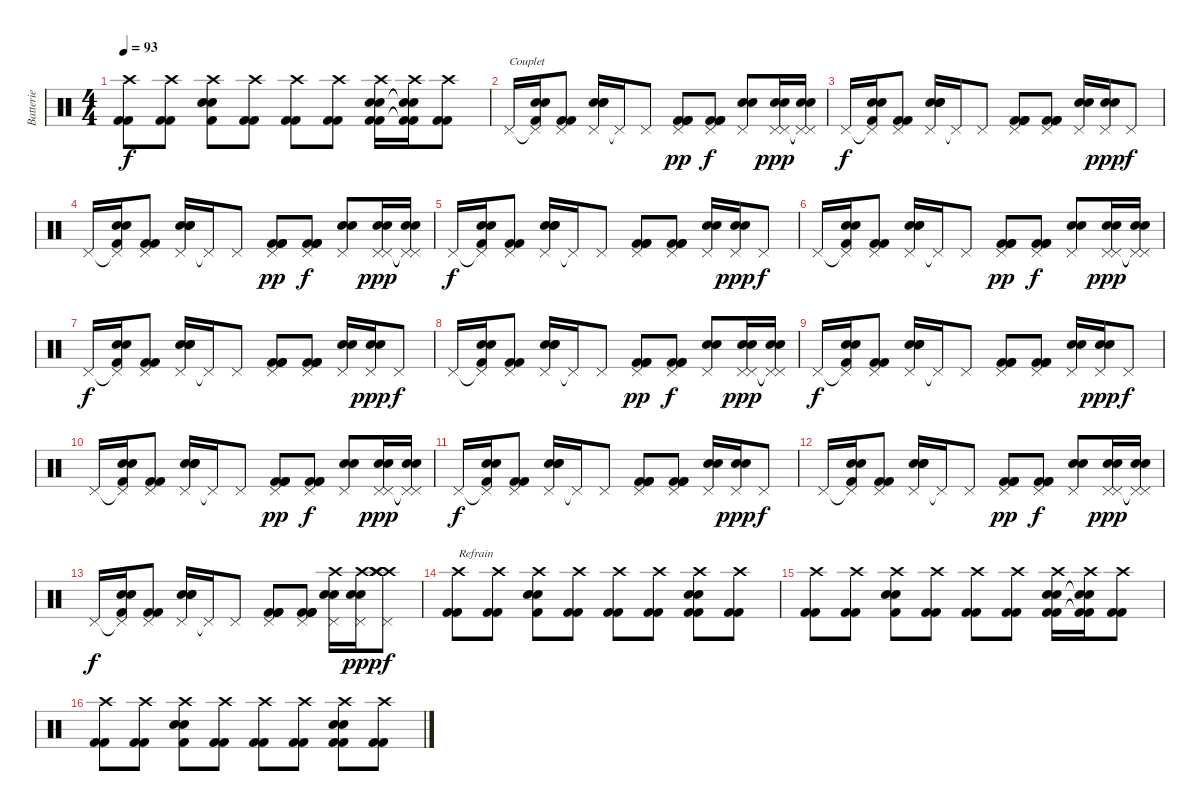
\track ("Batterie" "Batterie") {instrument percussion}
\staff {score}
\articulation defaults
\ts (4 4)
\tempo 93
\clef neutral
\ks c
("Crash high (hit)" "Kick (hit) 2" "Kick (hit) 2").8{dy f} ("Crash high (hit)" "Kick (hit) 2" "Kick (hit) 2").8 ("Crash high (hit)" "Snare (hit) 2" "Snare (hit) 2" "Kick (hit) 2").8 ("Crash high (hit)" "Kick (hit) 2" "Kick (hit) 2").8 ("Crash high (hit)" "Kick (hit) 2" "Kick (hit) 2").8 ("Crash high (hit)" "Kick (hit) 2" "Kick (hit) 2").8 ("Crash high (hit)" "Snare (hit) 2" "Snare (hit) 2" "Kick (hit) 2" "Kick (hit) 2").16 ("Crash high (hit)" "Snare (hit) 2"{t} "Snare (hit) 2"{t} "Kick (hit) 2"{t} "Kick (hit) 2"{t}).16 ("Crash high (hit)" "Kick (hit) 2" "Kick (hit) 2").8 |
"Pedal Hi-Hat (hit)".16{txt "Couplet"} ("Pedal Hi-Hat (hit)"{t} "Snare (hit) 2" "Snare (hit) 2" "Kick (hit) 2").16 ("Pedal Hi-Hat (hit)" "Kick (hit) 2" "Kick (hit) 2").8 ("Pedal Hi-Hat (hit)" "Snare (hit) 2" "Snare (hit) 2" "Snare (hit) 2").16 "Pedal Hi-Hat (hit)"{t}.16 "Pedal Hi-Hat (hit)".8 ("Pedal Hi-Hat (hit)" "Kick (hit) 2" "Kick (hit) 2" "Kick (hit) 2").8{dy pp} ("Pedal Hi-Hat (hit)" "Kick (hit) 2" "Kick (hit) 2" "Kick (hit) 2").8{dy f} ("Pedal Hi-Hat (hit)" "Snare (hit) 2" "Snare (hit) 2").8 ("Pedal Hi-Hat (hit)" "Pedal Hi-Hat (hit)" "Snare (hit) 2" "Snare (hit) 2").16{dy ppp} ("Pedal Hi-Hat (hit)"{t} "Pedal Hi-Hat (hit)"{t} "Snare (hit) 2" "Snare (hit) 2").16 |
"Pedal Hi-Hat (hit)".16{dy f} ("Pedal Hi-Hat (hit)"{t} "Snare (hit) 2" "Snare (hit) 2" "Kick (hit) 2").16 ("Pedal Hi-Hat (hit)" "Kick (hit) 2" "Kick (hit) 2").8 ("Pedal Hi-Hat (hit)" "Snare (hit) 2" "Snare (hit) 2" "Snare (hit) 2").16 "Pedal Hi-Hat (hit)"{t}.16 "Pedal Hi-Hat (hit)".8 ("Pedal Hi-Hat (hit)" "Kick (hit) 2" "Kick (hit) 2" "Kick (hit) 2").8 ("Pedal Hi-Hat (hit)" "Kick (hit) 2" "Kick (hit) 2" "Kick (hit) 2").8 ("Pedal Hi-Hat (hit)" "Snare (hit) 2" "Snare (hit) 2").16 ("Pedal Hi-Hat (hit)" "Snare (hit) 2" "Snare (hit) 2").16{dy ppp} "Pedal Hi-Hat (hit)".8{dy f} |
"Pedal Hi-Hat (hit)".16 ("Pedal Hi-Hat (hit)"{t} "Snare (hit) 2" "Snare (hit) 2" "Kick (hit) 2").16 ("Pedal Hi-Hat (hit)" "Kick (hit) 2" "Kick (hit) 2").8 ("Pedal Hi-Hat (hit)" "Snare (hit) 2" "Snare (hit) 2" "Snare (hit) 2").16 "Pedal Hi-Hat (hit)"{t}.16 "Pedal Hi-Hat (hit)".8 ("Pedal Hi-Hat (hit)" "Kick (hit) 2" "Kick (hit) 2" "Kick (hit) 2").8{dy pp} ("Pedal Hi-Hat (hit)" "Kick (hit) 2" "Kick (hit) 2" "Kick (hit) 2").8{dy f} ("Pedal Hi-Hat (hit)" "Snare (hit) 2" "Snare (hit) 2").8 ("Pedal Hi-Hat (hit)" "Pedal Hi-Hat (hit)" "Snare (hit) 2" "Snare (hit) 2").16{dy ppp} ("Pedal Hi-Hat (hit)"{t} "Pedal Hi-Hat (hit)"{t} "Snare (hit) 2" "Snare (hit) 2").16 |
"Pedal Hi-Hat (hit)".16{dy f} ("Pedal Hi-Hat (hit)"{t} "Snare (hit) 2" "Snare (hit) 2" "Kick (hit) 2").16 ("Pedal Hi-Hat (hit)" "Kick (hit) 2" "Kick (hit) 2").8 ("Pedal Hi-Hat (hit)" "Snare (hit) 2" "Snare (hit) 2" "Snare (hit) 2").16 "Pedal Hi-Hat (hit)"{t}.16 "Pedal Hi-Hat (hit)".8 ("Pedal Hi-Hat (hit)" "Kick (hit) 2" "Kick (hit) 2" "Kick (hit) 2").8 ("Pedal Hi-Hat (hit)" "Kick (hit) 2" "Kick (hit) 2" "Kick (hit) 2").8 ("Pedal Hi-Hat (hit)" "Snare (hit) 2" "Snare (hit) 2").16 ("Pedal Hi-Hat (hit)" "Snare (hit) 2" "Snare (hit) 2").16{dy ppp} "Pedal Hi-Hat (hit)".8{dy f} |
"Pedal Hi-Hat (hit)".16 ("Pedal Hi-Hat (hit)"{t} "Snare (hit) 2" "Snare (hit) 2" "Kick (hit) 2").16 ("Pedal Hi-Hat (hit)" "Kick (hit) 2" "Kick (hit) 2").8 ("Pedal Hi-Hat (hit)" "Snare (hit) 2" "Snare (hit) 2" "Snare (hit) 2").16 "Pedal Hi-Hat (hit)"{t}.16 "Pedal Hi-Hat (hit)".8 ("Pedal Hi-Hat (hit)" "Kick (hit) 2" "Kick (hit) 2" "Kick (hit) 2").8{dy pp} ("Pedal Hi-Hat (hit)" "Kick (hit) 2" "Kick (hit) 2" "Kick (hit) 2").8{dy f} ("Pedal Hi-Hat (hit)" "Snare (hit) 2" "Snare (hit) 2").8 ("Pedal Hi-Hat (hit)" "Pedal Hi-Hat (hit)" "Snare (hit) 2" "Snare (hit) 2").16{dy ppp} ("Pedal Hi-Hat (hit)"{t} "Pedal Hi-Hat (hit)"{t} "Snare (hit) 2" "Snare (hit) 2").16 |
"Pedal Hi-Hat (hit)".16{dy f} ("Pedal Hi-Hat (hit)"{t} "Snare (hit) 2" "Snare (hit) 2" "Kick (hit) 2").16 ("Pedal Hi-Hat (hit)" "Kick (hit) 2" "Kick (hit) 2").8 ("Pedal Hi-Hat (hit)" "Snare (hit) 2" "Snare (hit) 2" "Snare (hit) 2").16 "Pedal Hi-Hat (hit)"{t}.16 "Pedal Hi-Hat (hit)".8 ("Pedal Hi-Hat (hit)" "Kick (hit) 2" "Kick (hit) 2" "Kick (hit) 2").8 ("Pedal Hi-Hat (hit)" "Kick (hit) 2" "Kick (hit) 2" "Kick (hit) 2").8 ("Pedal Hi-Hat (hit)" "Snare (hit) 2" "Snare (hit) 2").16 ("Pedal Hi-Hat (hit)" "Snare (hit) 2" "Snare (hit) 2").16{dy ppp} "Pedal Hi-Hat (hit)".8{dy f} |
"Pedal Hi-Hat (hit)".16 ("Pedal Hi-Hat (hit)"{t} "Snare (hit) 2" "Snare (hit) 2" "Kick (hit) 2").16 ("Pedal Hi-Hat (hit)" "Kick (hit) 2" "Kick (hit) 2").8 ("Pedal Hi-Hat (hit)" "Snare (hit) 2" "Snare (hit) 2" "Snare (hit) 2").16 "Pedal Hi-Hat (hit)"{t}.16 "Pedal Hi-Hat (hit)".8 ("Pedal Hi-Hat (hit)" "Kick (hit) 2" "Kick (hit) 2" "Kick (hit) 2").8{dy pp} ("Pedal Hi-Hat (hit)" "Kick (hit) 2" "Kick (hit) 2" "Kick (hit) 2").8{dy f} ("Pedal Hi-Hat (hit)" "Snare (hit) 2" "Snare (hit) 2").8 ("Pedal Hi-Hat (hit)" "Pedal Hi-Hat (hit)" "Snare (hit) 2" "Snare (hit) 2").16{dy ppp} ("Pedal Hi-Hat (hit)"{t} "Pedal Hi-Hat (hit)"{t} "Snare (hit) 2" "Snare (hit) 2").16 |
"Pedal Hi-Hat (hit)".16{dy f} ("Pedal Hi-Hat (hit)"{t} "Snare (hit) 2" "Snare (hit) 2" "Kick (hit) 2").16 ("Pedal Hi-Hat (hit)" "Kick (hit) 2" "Kick (hit) 2").8 ("Pedal Hi-Hat (hit)" "Snare (hit) 2" "Snare (hit) 2" "Snare (hit) 2").16 "Pedal Hi-Hat (hit)"{t}.16 "Pedal Hi-Hat (hit)".8 ("Pedal Hi-Hat (hit)" "Kick (hit) 2" "Kick (hit) 2" "Kick (hit) 2").8 ("Pedal Hi-Hat (hit)" "Kick (hit) 2" "Kick (hit) 2" "Kick (hit) 2").8 ("Pedal Hi-Hat (hit)" "Snare (hit) 2" "Snare (hit) 2").16 ("Pedal Hi-Hat (hit)" "Snare (hit) 2" "Snare (hit) 2").16{dy ppp} "Pedal Hi-Hat (hit)".8{dy f} |
"Pedal Hi-Hat (hit)".16 ("Pedal Hi-Hat (hit)"{t} "Snare (hit) 2" "Snare (hit) 2" "Kick (hit) 2").16 ("Pedal Hi-Hat (hit)" "Kick (hit) 2" "Kick (hit) 2").8 ("Pedal Hi-Hat (hit)" "Snare (hit) 2" "Snare (hit) 2" "Snare (hit) 2").16 "Pedal Hi-Hat (hit)"{t}.16 "Pedal Hi-Hat (hit)".8 ("Pedal Hi-Hat (hit)" "Kick (hit) 2" "Kick (hit) 2" "Kick (hit) 2").8{dy pp} ("Pedal Hi-Hat (hit)" "Kick (hit) 2" "Kick (hit) 2" "Kick (hit) 2").8{dy f} ("Pedal Hi-Hat (hit)" "Snare (hit) 2" "Snare (hit) 2").8 ("Pedal Hi-Hat (hit)" "Pedal Hi-Hat (hit)" "Snare (hit) 2" "Snare (hit) 2").16{dy ppp} ("Pedal Hi-Hat (hit)"{t} "Pedal Hi-Hat (hit)"{t} "Snare (hit) 2" "Snare (hit) 2").16 |
"Pedal Hi-Hat (hit)".16{dy f} ("Pedal Hi-Hat (hit)"{t} "Snare (hit) 2" "Snare (hit) 2" "Kick (hit) 2").16 ("Pedal Hi-Hat (hit)" "Kick (hit) 2" "Kick (hit) 2").8 ("Pedal Hi-Hat (hit)" "Snare (hit) 2" "Snare (hit) 2" "Snare (hit) 2").16 "Pedal Hi-Hat (hit)"{t}.16 "Pedal Hi-Hat (hit)".8 ("Pedal Hi-Hat (hit)" "Kick (hit) 2" "Kick (hit) 2" "Kick (hit) 2").8 ("Pedal Hi-Hat (hit)" "Kick (hit) 2" "Kick (hit) 2" "Kick (hit) 2").8 ("Pedal Hi-Hat (hit)" "Snare (hit) 2" "Snare (hit) 2").16 ("Pedal Hi-Hat (hit)" "Snare (hit) 2" "Snare (hit) 2").16{dy ppp} "Pedal Hi-Hat (hit)".8{dy f} |
"Pedal Hi-Hat (hit)".16 ("Pedal Hi-Hat (hit)"{t} "Snare (hit) 2" "Snare (hit) 2" "Kick (hit) 2").16 ("Pedal Hi-Hat (hit)" "Kick (hit) 2" "Kick (hit) 2").8 ("Pedal Hi-Hat (hit)" "Snare (hit) 2" "Snare (hit) 2" "Snare (hit) 2").16 "Pedal Hi-Hat (hit)"{t}.16 "Pedal Hi-Hat (hit)".8 ("Pedal Hi-Hat (hit)" "Kick (hit) 2" "Kick (hit) 2" "Kick (hit) 2").8{dy pp} ("Pedal Hi-Hat (hit)" "Kick (hit) 2" "Kick (hit) 2" "Kick (hit) 2").8{dy f} ("Pedal Hi-Hat (hit)" "Snare (hit) 2" "Snare (hit) 2").8 ("Pedal Hi-Hat (hit)" "Pedal Hi-Hat (hit)" "Snare (hit) 2" "Snare (hit) 2").16{dy ppp} ("Pedal Hi-Hat (hit)"{t} "Pedal Hi-Hat (hit)"{t} "Snare (hit) 2" "Snare (hit) 2").16 |
"Pedal Hi-Hat (hit)".16{dy f} ("Pedal Hi-Hat (hit)"{t} "Snare (hit) 2" "Snare (hit) 2" "Kick (hit) 2").16 ("Pedal Hi-Hat (hit)" "Kick (hit) 2" "Kick (hit) 2").8 ("Pedal Hi-Hat (hit)" "Snare (hit) 2" "Snare (hit) 2" "Snare (hit) 2").16 "Pedal Hi-Hat (hit)"{t}.16 "Pedal Hi-Hat (hit)".8 ("Pedal Hi-Hat (hit)" "Kick (hit) 2" "Kick (hit) 2" "Kick (hit) 2").8 ("Pedal Hi-Hat (hit)" "Kick (hit) 2" "Kick (hit) 2" "Kick (hit) 2").8 ("Pedal Hi-Hat (hit)" "Snare (hit) 2" "Snare (hit) 2" "Crash high (hit)").16 ("Pedal Hi-Hat (hit)" "Snare (hit) 2" "Snare (hit) 2" "Crash high (hit)").16{dy ppp} ("Pedal Hi-Hat (hit)" "Crash high (hit)" "Crash high (hit)" "Crash high (hit)" "Crash high (hit)").8{dy f} |
("Crash high (hit)" "Kick (hit) 2" "Kick (hit) 2").8{txt "Refrain"} ("Crash high (hit)" "Kick (hit) 2" "Kick (hit) 2").8 ("Crash high (hit)" "Snare (hit) 2" "Snare (hit) 2" "Kick (hit) 2").8 ("Crash high (hit)" "Kick (hit) 2" "Kick (hit) 2").8 ("Crash high (hit)" "Kick (hit) 2" "Kick (hit) 2").8 ("Crash high (hit)" "Kick (hit) 2" "Kick (hit) 2").8 ("Crash high (hit)" "Snare (hit) 2" "Snare (hit) 2" "Kick (hit) 2" "Kick (hit) 2").8 ("Crash high (hit)" "Kick (hit) 2" "Kick (hit) 2").8 |
("Crash high (hit)" "Kick (hit) 2" "Kick (hit) 2").8 ("Crash high (hit)" "Kick (hit) 2" "Kick (hit) 2").8 ("Crash high (hit)" "Snare (hit) 2" "Snare (hit) 2" "Kick (hit) 2").8 ("Crash high (hit)" "Kick (hit) 2" "Kick (hit) 2").8 ("Crash high (hit)" "Kick (hit) 2" "Kick (hit) 2").8 ("Crash high (hit)" "Kick (hit) 2" "Kick (hit) 2").8 ("Crash high (hit)" "Snare (hit) 2" "Snare (hit) 2" "Kick (hit) 2" "Kick (hit) 2").16 ("Crash high (hit)" "Snare (hit) 2"{t} "Snare (hit) 2"{t} "Kick (hit) 2"{t} "Kick (hit) 2"{t}).16 ("Crash high (hit)" "Kick (hit) 2" "Kick (hit) 2").8 |
("Crash high (hit)" "Kick (hit) 2" "Kick (hit) 2").8 ("Crash high (hit)" "Kick (hit) 2" "Kick (hit) 2").8 ("Crash high (hit)" "Snare (hit) 2" "Snare (hit) 2" "Kick (hit) 2").8 ("Crash high (hit)" "Kick (hit) 2" "Kick (hit) 2").8 ("Crash high (hit)" "Kick (hit) 2" "Kick (hit) 2").8 ("Crash high (hit)" "Kick (hit) 2" "Kick (hit) 2").8 ("Crash high (hit)" "Snare (hit) 2" "Snare (hit) 2" "Kick (hit) 2" "Kick (hit) 2").8 ("Crash high (hit)" "Kick (hit) 2" "Kick (hit) 2").8
